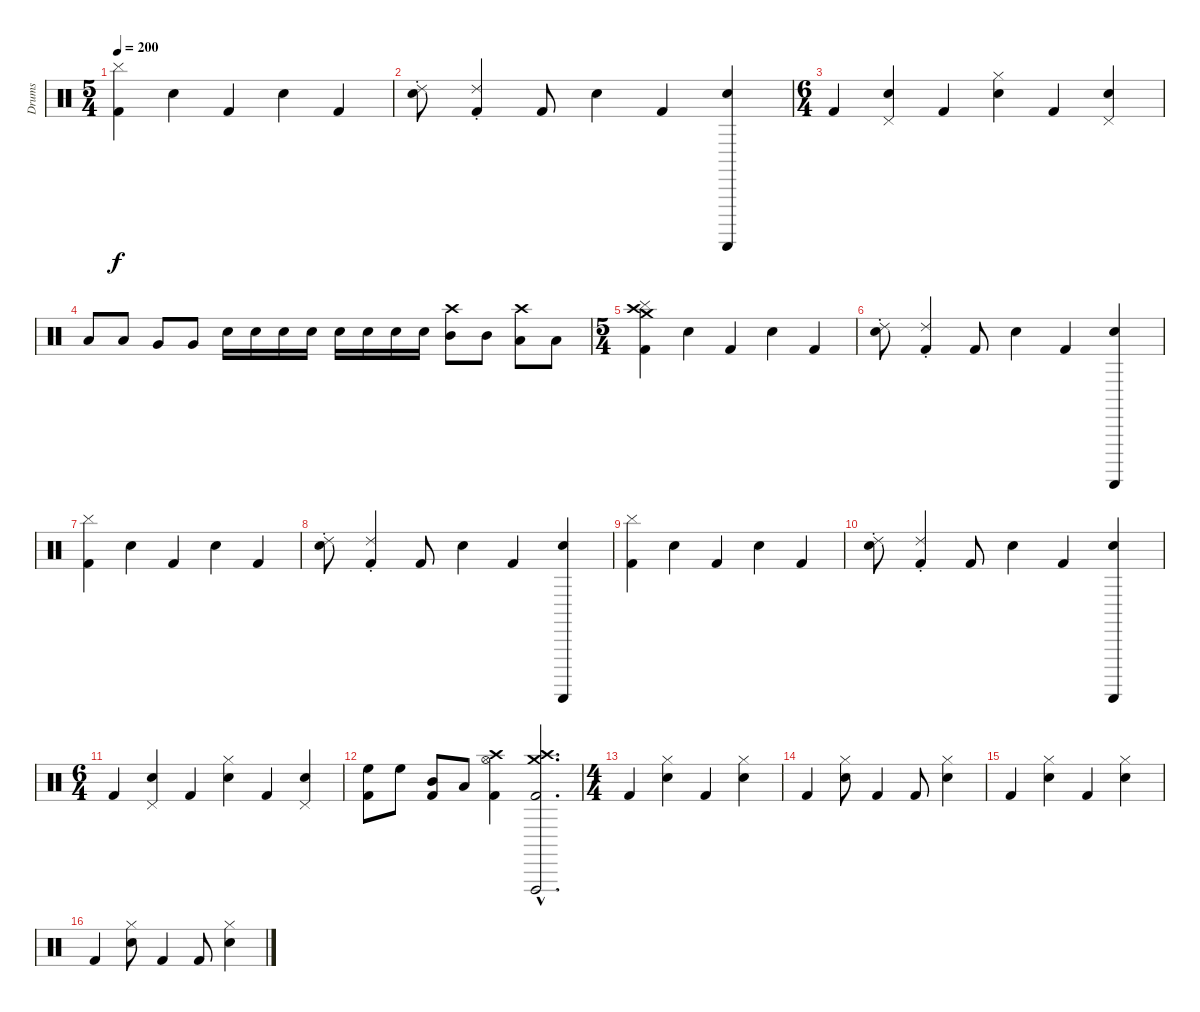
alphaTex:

\track ("Drums" "Drums") {instrument percussion}
\staff {score}
\articulation defaults
\ts (5 4)
\tempo 200
\clef neutral
\ks c
("Kick (hit) 2" "Cymbal (hit)").4{dy f} "Hand Clap (hit)".4 "Kick (hit) 2".4 "Hand Clap (hit)".4 "Kick (hit) 2".4 |
("Hand Clap (hit)" "Ride (choke) 2").8 ("Kick (hit) 2" "Ride (choke) 2").4 "Kick (hit) 2".8 "Hand Clap (hit)".4 "Kick (hit) 2".4 ("Hand Clap (hit)" "Guiro (scrap-return)").4 |
\ts (6 4)
"Kick (hit) 2".4 ("Hand Clap (hit)" "Pedal Hi-Hat (hit)").4 "Kick (hit) 2".4 ("Hand Clap (hit)" "Hi-Hat (closed)").4 "Kick (hit) 2".4 ("Hand Clap (hit)" "Pedal Hi-Hat (hit)").4 |
"Low Tom (hit)".8 "Low Tom (hit)".8 "Very Low Tom (hit)".8 "Very Low Tom (hit)".8 "Snare (hit) 2".16 "Snare (hit) 2".16 "Snare (hit) 2".16 "Snare (hit) 2".16 "Snare (hit) 2".16 "Snare (hit) 2".16 "Snare (hit) 2".16 "Snare (hit) 2".16 ("Mid Tom (hit)" "Crash high (hit)").8 "Mid Tom (hit)".8 ("Low Tom (hit)" "Crash high (hit)").8 "Low Tom (hit)".8 |
\ts (5 4)
("Kick (hit) 2" "Cymbal (hit)" "Crash high (hit)" "Crash medium (hit)").4 "Hand Clap (hit)".4 "Kick (hit) 2".4 "Hand Clap (hit)".4 "Kick (hit) 2".4 |
("Hand Clap (hit)" "Ride (choke) 2").8 ("Kick (hit) 2" "Ride (choke) 2").4 "Kick (hit) 2".8 "Hand Clap (hit)".4 "Kick (hit) 2".4 ("Hand Clap (hit)" "Guiro (scrap-return)").4 |
("Kick (hit) 2" "Cymbal (hit)").4 "Hand Clap (hit)".4 "Kick (hit) 2".4 "Hand Clap (hit)".4 "Kick (hit) 2".4 |
("Hand Clap (hit)" "Ride (choke) 2").8 ("Kick (hit) 2" "Ride (choke) 2").4 "Kick (hit) 2".8 "Hand Clap (hit)".4 "Kick (hit) 2".4 ("Hand Clap (hit)" "Guiro (scrap-return)").4 |
("Kick (hit) 2" "Cymbal (hit)").4 "Hand Clap (hit)".4 "Kick (hit) 2".4 "Hand Clap (hit)".4 "Kick (hit) 2".4 |
("Hand Clap (hit)" "Ride (choke) 2").8 ("Kick (hit) 2" "Ride (choke) 2").4 "Kick (hit) 2".8 "Hand Clap (hit)".4 "Kick (hit) 2".4 ("Hand Clap (hit)" "Guiro (scrap-return)").4 |
\ts (6 4)
"Kick (hit) 2".4 ("Hand Clap (hit)" "Pedal Hi-Hat (hit)").4 "Kick (hit) 2".4 ("Hand Clap (hit)" "Hi-Hat (closed)").4 "Kick (hit) 2".4 ("Hand Clap (hit)" "Pedal Hi-Hat (hit)").4 |
("High Floor Tom (hit)" "Kick (hit) 2").8 "High Floor Tom (hit)".8 ("Mid Tom (hit)" "Kick (hit) 2").8 "Low Tom (hit)".8 ("Crash high (hit)" "Kick (hit) 2" "Hi-Hat (open)").4 ("Crash high (hit)"{hac} "Crash medium (hit)"{hac} "Kick (hit) 2"{hac} "Vibraslap (hit)"{hac}).2{d} |
\ts (4 4)
"Kick (hit) 2".4 ("Snare (hit) 2" "Hi-Hat (closed)").4 "Kick (hit) 2".4 ("Snare (hit) 2" "Hi-Hat (closed)").4 |
"Kick (hit) 2".4 ("Snare (hit) 2" "Hi-Hat (closed)").8 "Kick (hit) 2".4 "Kick (hit) 2".8 ("Snare (hit) 2" "Hi-Hat (closed)").4 |
"Kick (hit) 2".4 ("Snare (hit) 2" "Hi-Hat (closed)").4 "Kick (hit) 2".4 ("Snare (hit) 2" "Hi-Hat (closed)").4 |
"Kick (hit) 2".4 ("Snare (hit) 2" "Hi-Hat (closed)").8 "Kick (hit) 2".4 "Kick (hit) 2".8 ("Snare (hit) 2" "Hi-Hat (closed)").4
